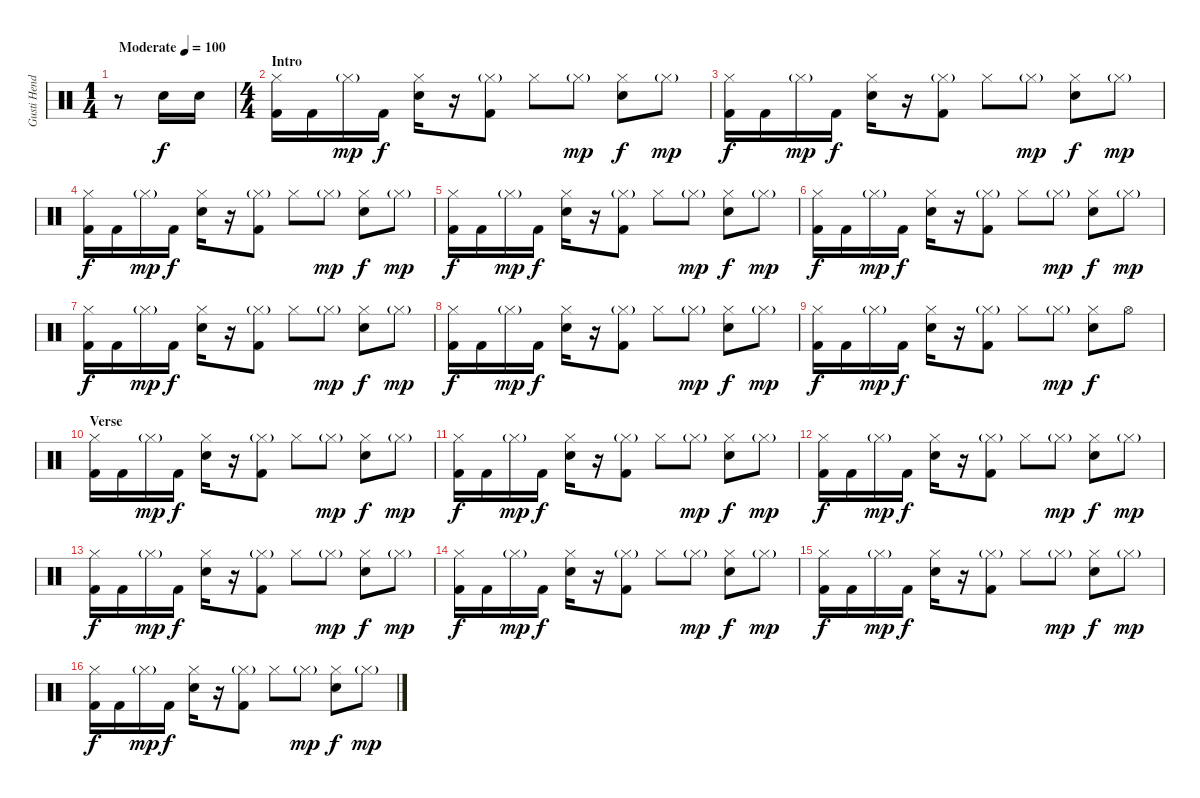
\track ("Gusti Hendy" "Gusti Hend") {instrument percussion}
\staff {score}
\articulation defaults
\ts (1 4)
\tempo (100 "Moderate")
\clef neutral
\ks c
r.8{dy f} "Electric Snare (hit)".16 "Electric Snare (hit)".16 |
\ts (4 4)
\section ("" "Intro")
("Hi-Hat (closed)" "Kick (hit) 2").16 "Kick (hit) 2".16 "Hi-Hat (closed)"{g}.16{dy mp} "Kick (hit) 2".16{dy f} ("Hi-Hat (closed)" "Electric Snare (hit)").16 r.16 ("Hi-Hat (closed)"{g} "Kick (hit) 2").8 "Hi-Hat (closed)".8 "Hi-Hat (closed)"{g}.8{dy mp} ("Hi-Hat (closed)" "Electric Snare (hit)").8{dy f} "Hi-Hat (closed)"{g}.8{dy mp} |
("Hi-Hat (closed)" "Kick (hit) 2").16{dy f} "Kick (hit) 2".16 "Hi-Hat (closed)"{g}.16{dy mp} "Kick (hit) 2".16{dy f} ("Hi-Hat (closed)" "Electric Snare (hit)").16 r.16 ("Hi-Hat (closed)"{g} "Kick (hit) 2").8 "Hi-Hat (closed)".8 "Hi-Hat (closed)"{g}.8{dy mp} ("Hi-Hat (closed)" "Electric Snare (hit)").8{dy f} "Hi-Hat (closed)"{g}.8{dy mp} |
("Hi-Hat (closed)" "Kick (hit) 2").16{dy f} "Kick (hit) 2".16 "Hi-Hat (closed)"{g}.16{dy mp} "Kick (hit) 2".16{dy f} ("Hi-Hat (closed)" "Electric Snare (hit)").16 r.16 ("Hi-Hat (closed)"{g} "Kick (hit) 2").8 "Hi-Hat (closed)".8 "Hi-Hat (closed)"{g}.8{dy mp} ("Hi-Hat (closed)" "Electric Snare (hit)").8{dy f} "Hi-Hat (closed)"{g}.8{dy mp} |
("Hi-Hat (closed)" "Kick (hit) 2").16{dy f} "Kick (hit) 2".16 "Hi-Hat (closed)"{g}.16{dy mp} "Kick (hit) 2".16{dy f} ("Hi-Hat (closed)" "Electric Snare (hit)").16 r.16 ("Hi-Hat (closed)"{g} "Kick (hit) 2").8 "Hi-Hat (closed)".8 "Hi-Hat (closed)"{g}.8{dy mp} ("Hi-Hat (closed)" "Electric Snare (hit)").8{dy f} "Hi-Hat (closed)"{g}.8{dy mp} |
("Hi-Hat (closed)" "Kick (hit) 2").16{dy f} "Kick (hit) 2".16 "Hi-Hat (closed)"{g}.16{dy mp} "Kick (hit) 2".16{dy f} ("Hi-Hat (closed)" "Electric Snare (hit)").16 r.16 ("Hi-Hat (closed)"{g} "Kick (hit) 2").8 "Hi-Hat (closed)".8 "Hi-Hat (closed)"{g}.8{dy mp} ("Hi-Hat (closed)" "Electric Snare (hit)").8{dy f} "Hi-Hat (closed)"{g}.8{dy mp} |
("Hi-Hat (closed)" "Kick (hit) 2").16{dy f} "Kick (hit) 2".16 "Hi-Hat (closed)"{g}.16{dy mp} "Kick (hit) 2".16{dy f} ("Hi-Hat (closed)" "Electric Snare (hit)").16 r.16 ("Hi-Hat (closed)"{g} "Kick (hit) 2").8 "Hi-Hat (closed)".8 "Hi-Hat (closed)"{g}.8{dy mp} ("Hi-Hat (closed)" "Electric Snare (hit)").8{dy f} "Hi-Hat (closed)"{g}.8{dy mp} |
("Hi-Hat (closed)" "Kick (hit) 2").16{dy f} "Kick (hit) 2".16 "Hi-Hat (closed)"{g}.16{dy mp} "Kick (hit) 2".16{dy f} ("Hi-Hat (closed)" "Electric Snare (hit)").16 r.16 ("Hi-Hat (closed)"{g} "Kick (hit) 2").8 "Hi-Hat (closed)".8 "Hi-Hat (closed)"{g}.8{dy mp} ("Hi-Hat (closed)" "Electric Snare (hit)").8{dy f} "Hi-Hat (closed)"{g}.8{dy mp} |
("Hi-Hat (closed)" "Kick (hit) 2").16{dy f} "Kick (hit) 2".16 "Hi-Hat (closed)"{g}.16{dy mp} "Kick (hit) 2".16{dy f} ("Hi-Hat (closed)" "Electric Snare (hit)").16 r.16 ("Hi-Hat (closed)"{g} "Kick (hit) 2").8 "Hi-Hat (closed)".8 "Hi-Hat (closed)"{g}.8{dy mp} ("Hi-Hat (closed)" "Electric Snare (hit)").8{dy f} "Hi-Hat (open)".8 |
\section ("" "Verse")
("Hi-Hat (closed)" "Kick (hit) 2").16 "Kick (hit) 2".16 "Hi-Hat (closed)"{g}.16{dy mp} "Kick (hit) 2".16{dy f} ("Hi-Hat (closed)" "Electric Snare (hit)").16 r.16 ("Hi-Hat (closed)"{g} "Kick (hit) 2").8 "Hi-Hat (closed)".8 "Hi-Hat (closed)"{g}.8{dy mp} ("Hi-Hat (closed)" "Electric Snare (hit)").8{dy f} "Hi-Hat (closed)"{g}.8{dy mp} |
("Hi-Hat (closed)" "Kick (hit) 2").16{dy f} "Kick (hit) 2".16 "Hi-Hat (closed)"{g}.16{dy mp} "Kick (hit) 2".16{dy f} ("Hi-Hat (closed)" "Electric Snare (hit)").16 r.16 ("Hi-Hat (closed)"{g} "Kick (hit) 2").8 "Hi-Hat (closed)".8 "Hi-Hat (closed)"{g}.8{dy mp} ("Hi-Hat (closed)" "Electric Snare (hit)").8{dy f} "Hi-Hat (closed)"{g}.8{dy mp} |
("Hi-Hat (closed)" "Kick (hit) 2").16{dy f} "Kick (hit) 2".16 "Hi-Hat (closed)"{g}.16{dy mp} "Kick (hit) 2".16{dy f} ("Hi-Hat (closed)" "Electric Snare (hit)").16 r.16 ("Hi-Hat (closed)"{g} "Kick (hit) 2").8 "Hi-Hat (closed)".8 "Hi-Hat (closed)"{g}.8{dy mp} ("Hi-Hat (closed)" "Electric Snare (hit)").8{dy f} "Hi-Hat (closed)"{g}.8{dy mp} |
("Hi-Hat (closed)" "Kick (hit) 2").16{dy f} "Kick (hit) 2".16 "Hi-Hat (closed)"{g}.16{dy mp} "Kick (hit) 2".16{dy f} ("Hi-Hat (closed)" "Electric Snare (hit)").16 r.16 ("Hi-Hat (closed)"{g} "Kick (hit) 2").8 "Hi-Hat (closed)".8 "Hi-Hat (closed)"{g}.8{dy mp} ("Hi-Hat (closed)" "Electric Snare (hit)").8{dy f} "Hi-Hat (closed)"{g}.8{dy mp} |
("Hi-Hat (closed)" "Kick (hit) 2").16{dy f} "Kick (hit) 2".16 "Hi-Hat (closed)"{g}.16{dy mp} "Kick (hit) 2".16{dy f} ("Hi-Hat (closed)" "Electric Snare (hit)").16 r.16 ("Hi-Hat (closed)"{g} "Kick (hit) 2").8 "Hi-Hat (closed)".8 "Hi-Hat (closed)"{g}.8{dy mp} ("Hi-Hat (closed)" "Electric Snare (hit)").8{dy f} "Hi-Hat (closed)"{g}.8{dy mp} |
("Hi-Hat (closed)" "Kick (hit) 2").16{dy f} "Kick (hit) 2".16 "Hi-Hat (closed)"{g}.16{dy mp} "Kick (hit) 2".16{dy f} ("Hi-Hat (closed)" "Electric Snare (hit)").16 r.16 ("Hi-Hat (closed)"{g} "Kick (hit) 2").8 "Hi-Hat (closed)".8 "Hi-Hat (closed)"{g}.8{dy mp} ("Hi-Hat (closed)" "Electric Snare (hit)").8{dy f} "Hi-Hat (closed)"{g}.8{dy mp} |
("Hi-Hat (closed)" "Kick (hit) 2").16{dy f} "Kick (hit) 2".16 "Hi-Hat (closed)"{g}.16{dy mp} "Kick (hit) 2".16{dy f} ("Hi-Hat (closed)" "Electric Snare (hit)").16 r.16 ("Hi-Hat (closed)"{g} "Kick (hit) 2").8 "Hi-Hat (closed)".8 "Hi-Hat (closed)"{g}.8{dy mp} ("Hi-Hat (closed)" "Electric Snare (hit)").8{dy f} "Hi-Hat (closed)"{g}.8{dy mp}
